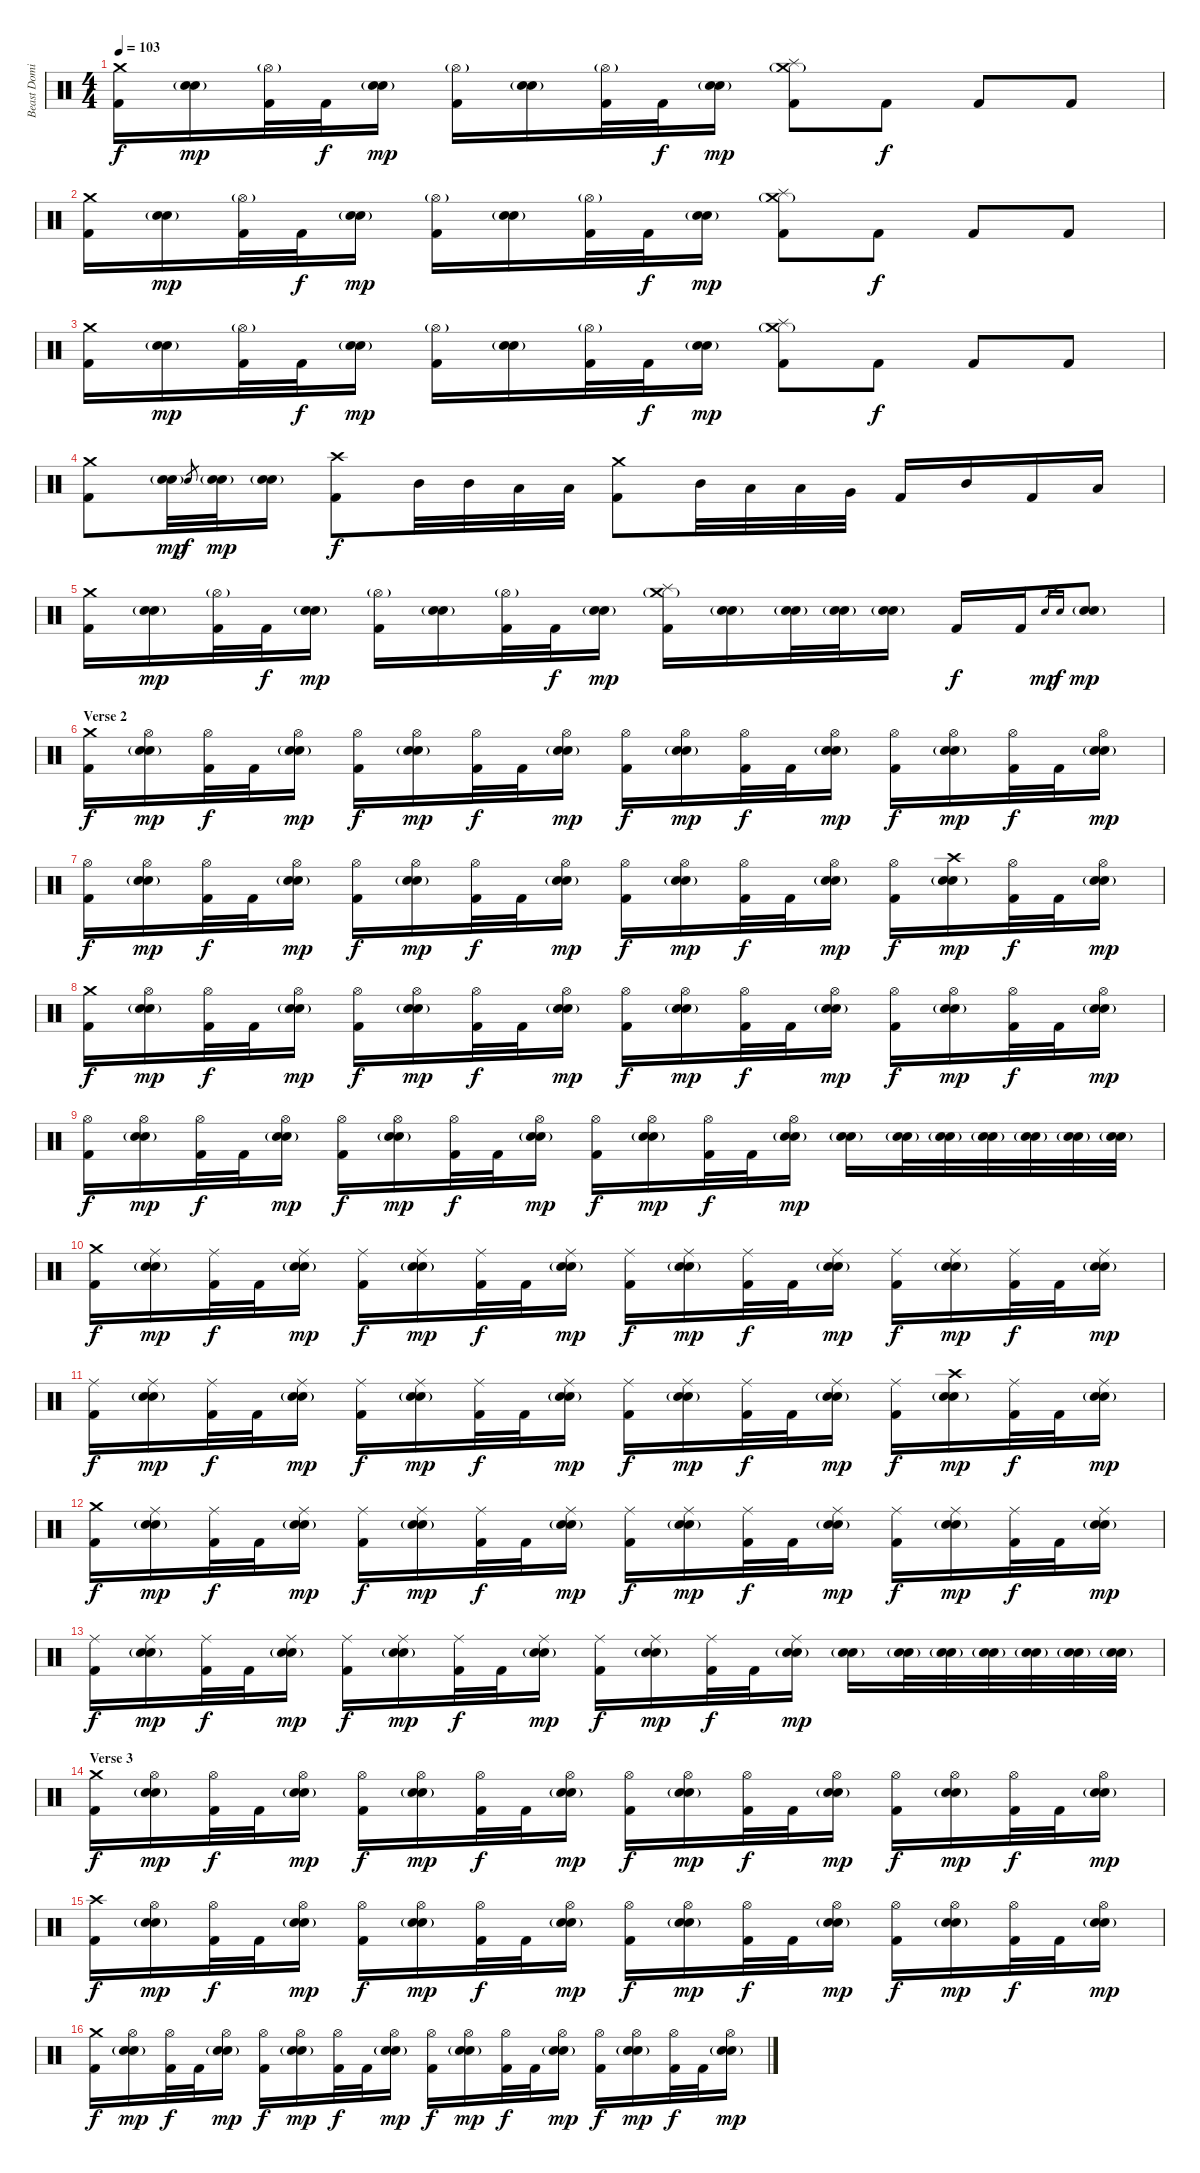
\track ("Beast Dominator" "Beast Domi") {instrument percussion}
\staff {score}
\articulation defaults
\ts (4 4)
\tempo 103
\clef neutral
\ks c
("Crash medium (hit)" "Kick (hit) 2").16{dy f} ("Electric Snare (hit)"{g} "Snare (hit) 2").16{dy mp} ("Hi-Hat (open)"{g} "Kick (hit) 2").32 "Kick (hit) 2".32{dy f} ("Electric Snare (hit)"{g} "Snare (hit) 2").16{dy mp} ("Hi-Hat (open)"{g} "Kick (hit) 2").16 ("Electric Snare (hit)"{g} "Snare (hit) 2").16 ("Hi-Hat (open)"{g} "Kick (hit) 2").32 "Kick (hit) 2".32{dy f} ("Electric Snare (hit)"{g} "Snare (hit) 2").16{dy mp} ("Crash medium (hit)"{g} "Splash (hit)" "Kick (hit) 2").8 "Kick (hit) 2".8{dy f} "Kick (hit) 2".8 "Kick (hit) 2".8 |
("Crash medium (hit)" "Kick (hit) 2").16 ("Electric Snare (hit)"{g} "Snare (hit) 2").16{dy mp} ("Hi-Hat (open)"{g} "Kick (hit) 2").32 "Kick (hit) 2".32{dy f} ("Electric Snare (hit)"{g} "Snare (hit) 2").16{dy mp} ("Hi-Hat (open)"{g} "Kick (hit) 2").16 ("Electric Snare (hit)"{g} "Snare (hit) 2").16 ("Hi-Hat (open)"{g} "Kick (hit) 2").32 "Kick (hit) 2".32{dy f} ("Electric Snare (hit)"{g} "Snare (hit) 2").16{dy mp} ("Crash medium (hit)"{g} "Splash (hit)" "Kick (hit) 2").8 "Kick (hit) 2".8{dy f} "Kick (hit) 2".8 "Kick (hit) 2".8 |
("Crash medium (hit)" "Kick (hit) 2").16 ("Electric Snare (hit)"{g} "Snare (hit) 2").16{dy mp} ("Hi-Hat (open)"{g} "Kick (hit) 2").32 "Kick (hit) 2".32{dy f} ("Electric Snare (hit)"{g} "Snare (hit) 2").16{dy mp} ("Hi-Hat (open)"{g} "Kick (hit) 2").16 ("Electric Snare (hit)"{g} "Snare (hit) 2").16 ("Hi-Hat (open)"{g} "Kick (hit) 2").32 "Kick (hit) 2".32{dy f} ("Electric Snare (hit)"{g} "Snare (hit) 2").16{dy mp} ("Crash medium (hit)"{g} "Splash (hit)" "Kick (hit) 2").8 "Kick (hit) 2".8{dy f} "Kick (hit) 2".8 "Kick (hit) 2".8 |
\section ("" "")
("Crash medium (hit)" "Kick (hit) 2").8 ("Snare (hit) 2"{x} "Electric Snare (hit)"{g}).32{dy mp} "Snare (hit) 2".8{gr dy f} ("Snare (hit) 2" "Electric Snare (hit)"{g}).32{dy mp} ("Snare (hit) 2" "Electric Snare (hit)"{g}).16 ("Crash high (hit)" "Kick (hit) 2").8{dy f} "Mid Tom (hit)".32 "Mid Tom (hit)".32 "Low Tom (hit)".32 "Low Tom (hit)".32 ("Crash medium (hit)" "Kick (hit) 2").8 "Mid Tom (hit)".32 "Low Tom (hit)".32 "Low Tom (hit)".32 "Very Low Tom (hit)".32 "Kick (hit) 2".16 "Mid Tom (hit)".16 "Kick (hit) 2".16 "Low Tom (hit)".16 |
("Crash medium (hit)" "Kick (hit) 2").16 ("Electric Snare (hit)"{g} "Snare (hit) 2").16{dy mp} ("Hi-Hat (open)"{g} "Kick (hit) 2").32 "Kick (hit) 2".32{dy f} ("Electric Snare (hit)"{g} "Snare (hit) 2").16{dy mp} ("Hi-Hat (open)"{g} "Kick (hit) 2").16 ("Electric Snare (hit)"{g} "Snare (hit) 2").16 ("Hi-Hat (open)"{g} "Kick (hit) 2").32 "Kick (hit) 2".32{dy f} ("Electric Snare (hit)"{g} "Snare (hit) 2").16{dy mp} ("Crash medium (hit)"{g} "Splash (hit)" "Kick (hit) 2").16 ("Electric Snare (hit)"{g} "Snare (hit) 2").16 ("Electric Snare (hit)"{g} "Snare (hit) 2").32 ("Electric Snare (hit)"{g} "Snare (hit) 2").32 ("Electric Snare (hit)"{g} "Snare (hit) 2").16 "Kick (hit) 2".16{dy f} "Kick (hit) 2".16 "Electric Snare (hit)".16{gr dy mp} "Snare (hit) 2".16{gr dy f} ("Electric Snare (hit)"{g} "Snare (hit) 2").8{dy mp} |
\section ("" "Verse 2")
("Crash medium (hit)" "Kick (hit) 2").16{dy f} ("Hi-Hat (open)" "Electric Snare (hit)"{g} "Snare (hit) 2").16{dy mp} ("Hi-Hat (open)" "Kick (hit) 2").32{dy f} "Kick (hit) 2".32 ("Hi-Hat (open)" "Electric Snare (hit)"{g} "Snare (hit) 2").16{dy mp} ("Hi-Hat (open)" "Kick (hit) 2").16{dy f} ("Hi-Hat (open)" "Electric Snare (hit)"{g} "Snare (hit) 2").16{dy mp} ("Hi-Hat (open)" "Kick (hit) 2").32{dy f} "Kick (hit) 2".32 ("Hi-Hat (open)" "Electric Snare (hit)"{g} "Snare (hit) 2").16{dy mp} ("Hi-Hat (open)" "Kick (hit) 2").16{dy f} ("Hi-Hat (open)" "Electric Snare (hit)"{g} "Snare (hit) 2").16{dy mp} ("Hi-Hat (open)" "Kick (hit) 2").32{dy f} "Kick (hit) 2".32 ("Hi-Hat (open)" "Electric Snare (hit)"{g} "Snare (hit) 2").16{dy mp} ("Hi-Hat (open)" "Kick (hit) 2").16{dy f} ("Hi-Hat (open)" "Electric Snare (hit)"{g} "Snare (hit) 2").16{dy mp} ("Hi-Hat (open)" "Kick (hit) 2").32{dy f} "Kick (hit) 2".32 ("Hi-Hat (open)" "Electric Snare (hit)"{g} "Snare (hit) 2").16{dy mp} |
("Hi-Hat (open)" "Kick (hit) 2").16{dy f} ("Hi-Hat (open)" "Electric Snare (hit)"{g} "Snare (hit) 2").16{dy mp} ("Hi-Hat (open)" "Kick (hit) 2").32{dy f} "Kick (hit) 2".32 ("Hi-Hat (open)" "Electric Snare (hit)"{g} "Snare (hit) 2").16{dy mp} ("Hi-Hat (open)" "Kick (hit) 2").16{dy f} ("Hi-Hat (open)" "Electric Snare (hit)"{g} "Snare (hit) 2").16{dy mp} ("Hi-Hat (open)" "Kick (hit) 2").32{dy f} "Kick (hit) 2".32 ("Hi-Hat (open)" "Electric Snare (hit)"{g} "Snare (hit) 2").16{dy mp} ("Hi-Hat (open)" "Kick (hit) 2").16{dy f} ("Hi-Hat (open)" "Electric Snare (hit)"{g} "Snare (hit) 2").16{dy mp} ("Hi-Hat (open)" "Kick (hit) 2").32{dy f} "Kick (hit) 2".32 ("Hi-Hat (open)" "Electric Snare (hit)"{g} "Snare (hit) 2").16{dy mp} ("Hi-Hat (open)" "Kick (hit) 2").16{dy f} ("Crash high (hit)" "Electric Snare (hit)"{g} "Snare (hit) 2").16{dy mp} ("Hi-Hat (open)" "Kick (hit) 2").32{dy f} "Kick (hit) 2".32 ("Hi-Hat (open)" "Electric Snare (hit)"{g} "Snare (hit) 2").16{dy mp} |
("Crash medium (hit)" "Kick (hit) 2").16{dy f} ("Hi-Hat (open)" "Electric Snare (hit)"{g} "Snare (hit) 2").16{dy mp} ("Hi-Hat (open)" "Kick (hit) 2").32{dy f} "Kick (hit) 2".32 ("Hi-Hat (open)" "Electric Snare (hit)"{g} "Snare (hit) 2").16{dy mp} ("Hi-Hat (open)" "Kick (hit) 2").16{dy f} ("Hi-Hat (open)" "Electric Snare (hit)"{g} "Snare (hit) 2").16{dy mp} ("Hi-Hat (open)" "Kick (hit) 2").32{dy f} "Kick (hit) 2".32 ("Hi-Hat (open)" "Electric Snare (hit)"{g} "Snare (hit) 2").16{dy mp} ("Hi-Hat (open)" "Kick (hit) 2").16{dy f} ("Hi-Hat (open)" "Electric Snare (hit)"{g} "Snare (hit) 2").16{dy mp} ("Hi-Hat (open)" "Kick (hit) 2").32{dy f} "Kick (hit) 2".32 ("Hi-Hat (open)" "Electric Snare (hit)"{g} "Snare (hit) 2").16{dy mp} ("Hi-Hat (open)" "Kick (hit) 2").16{dy f} ("Hi-Hat (open)" "Electric Snare (hit)"{g} "Snare (hit) 2").16{dy mp} ("Hi-Hat (open)" "Kick (hit) 2").32{dy f} "Kick (hit) 2".32 ("Hi-Hat (open)" "Electric Snare (hit)"{g} "Snare (hit) 2").16{dy mp} |
("Hi-Hat (open)" "Kick (hit) 2").16{dy f} ("Hi-Hat (open)" "Electric Snare (hit)"{g} "Snare (hit) 2").16{dy mp} ("Hi-Hat (open)" "Kick (hit) 2").32{dy f} "Kick (hit) 2".32 ("Hi-Hat (open)" "Electric Snare (hit)"{g} "Snare (hit) 2").16{dy mp} ("Hi-Hat (open)" "Kick (hit) 2").16{dy f} ("Hi-Hat (open)" "Electric Snare (hit)"{g} "Snare (hit) 2").16{dy mp} ("Hi-Hat (open)" "Kick (hit) 2").32{dy f} "Kick (hit) 2".32 ("Hi-Hat (open)" "Electric Snare (hit)"{g} "Snare (hit) 2").16{dy mp} ("Hi-Hat (open)" "Kick (hit) 2").16{dy f} ("Hi-Hat (open)" "Electric Snare (hit)"{g} "Snare (hit) 2").16{dy mp} ("Hi-Hat (open)" "Kick (hit) 2").32{dy f} "Kick (hit) 2".32 ("Hi-Hat (open)" "Electric Snare (hit)"{g} "Snare (hit) 2").16{dy mp} ("Electric Snare (hit)"{g} "Snare (hit) 2").16 ("Electric Snare (hit)"{g} "Snare (hit) 2").32 ("Electric Snare (hit)"{g} "Snare (hit) 2").32 ("Electric Snare (hit)"{g} "Snare (hit) 2").32 ("Electric Snare (hit)"{g} "Snare (hit) 2").32 ("Electric Snare (hit)"{g} "Snare (hit) 2").32 ("Electric Snare (hit)"{g} "Snare (hit) 2").32 |
\section ("" "")
("Crash medium (hit)" "Kick (hit) 2").16{dy f} ("Ride (middle)" "Electric Snare (hit)"{g} "Snare (hit) 2").16{dy mp} ("Ride (middle)" "Kick (hit) 2").32{dy f} "Kick (hit) 2".32 ("Ride (middle)" "Electric Snare (hit)"{g} "Snare (hit) 2").16{dy mp} ("Ride (middle)" "Kick (hit) 2").16{dy f} ("Ride (middle)" "Electric Snare (hit)"{g} "Snare (hit) 2").16{dy mp} ("Ride (middle)" "Kick (hit) 2").32{dy f} "Kick (hit) 2".32 ("Ride (middle)" "Electric Snare (hit)"{g} "Snare (hit) 2").16{dy mp} ("Ride (middle)" "Kick (hit) 2").16{dy f} ("Ride (middle)" "Electric Snare (hit)"{g} "Snare (hit) 2").16{dy mp} ("Ride (middle)" "Kick (hit) 2").32{dy f} "Kick (hit) 2".32 ("Ride (middle)" "Electric Snare (hit)"{g} "Snare (hit) 2").16{dy mp} ("Ride (middle)" "Kick (hit) 2").16{dy f} ("Ride (middle)" "Electric Snare (hit)"{g} "Snare (hit) 2").16{dy mp} ("Ride (middle)" "Kick (hit) 2").32{dy f} "Kick (hit) 2".32 ("Ride (middle)" "Electric Snare (hit)"{g} "Snare (hit) 2").16{dy mp} |
("Ride (middle)" "Kick (hit) 2").16{dy f} ("Ride (middle)" "Electric Snare (hit)"{g} "Snare (hit) 2").16{dy mp} ("Ride (middle)" "Kick (hit) 2").32{dy f} "Kick (hit) 2".32 ("Ride (middle)" "Electric Snare (hit)"{g} "Snare (hit) 2").16{dy mp} ("Ride (middle)" "Kick (hit) 2").16{dy f} ("Ride (middle)" "Electric Snare (hit)"{g} "Snare (hit) 2").16{dy mp} ("Ride (middle)" "Kick (hit) 2").32{dy f} "Kick (hit) 2".32 ("Ride (middle)" "Electric Snare (hit)"{g} "Snare (hit) 2").16{dy mp} ("Ride (middle)" "Kick (hit) 2").16{dy f} ("Ride (middle)" "Electric Snare (hit)"{g} "Snare (hit) 2").16{dy mp} ("Ride (middle)" "Kick (hit) 2").32{dy f} "Kick (hit) 2".32 ("Ride (middle)" "Electric Snare (hit)"{g} "Snare (hit) 2").16{dy mp} ("Ride (middle)" "Kick (hit) 2").16{dy f} ("Crash high (hit)" "Electric Snare (hit)"{g} "Snare (hit) 2").16{dy mp} ("Ride (middle)" "Kick (hit) 2").32{dy f} "Kick (hit) 2".32 ("Ride (middle)" "Electric Snare (hit)"{g} "Snare (hit) 2").16{dy mp} |
("Crash medium (hit)" "Kick (hit) 2").16{dy f} ("Ride (middle)" "Electric Snare (hit)"{g} "Snare (hit) 2").16{dy mp} ("Ride (middle)" "Kick (hit) 2").32{dy f} "Kick (hit) 2".32 ("Ride (middle)" "Electric Snare (hit)"{g} "Snare (hit) 2").16{dy mp} ("Ride (middle)" "Kick (hit) 2").16{dy f} ("Ride (middle)" "Electric Snare (hit)"{g} "Snare (hit) 2").16{dy mp} ("Ride (middle)" "Kick (hit) 2").32{dy f} "Kick (hit) 2".32 ("Ride (middle)" "Electric Snare (hit)"{g} "Snare (hit) 2").16{dy mp} ("Ride (middle)" "Kick (hit) 2").16{dy f} ("Ride (middle)" "Electric Snare (hit)"{g} "Snare (hit) 2").16{dy mp} ("Ride (middle)" "Kick (hit) 2").32{dy f} "Kick (hit) 2".32 ("Ride (middle)" "Electric Snare (hit)"{g} "Snare (hit) 2").16{dy mp} ("Ride (middle)" "Kick (hit) 2").16{dy f} ("Ride (middle)" "Electric Snare (hit)"{g} "Snare (hit) 2").16{dy mp} ("Ride (middle)" "Kick (hit) 2").32{dy f} "Kick (hit) 2".32 ("Ride (middle)" "Electric Snare (hit)"{g} "Snare (hit) 2").16{dy mp} |
("Ride (middle)" "Kick (hit) 2").16{dy f} ("Ride (middle)" "Electric Snare (hit)"{g} "Snare (hit) 2").16{dy mp} ("Ride (middle)" "Kick (hit) 2").32{dy f} "Kick (hit) 2".32 ("Ride (middle)" "Electric Snare (hit)"{g} "Snare (hit) 2").16{dy mp} ("Ride (middle)" "Kick (hit) 2").16{dy f} ("Ride (middle)" "Electric Snare (hit)"{g} "Snare (hit) 2").16{dy mp} ("Ride (middle)" "Kick (hit) 2").32{dy f} "Kick (hit) 2".32 ("Ride (middle)" "Electric Snare (hit)"{g} "Snare (hit) 2").16{dy mp} ("Ride (middle)" "Kick (hit) 2").16{dy f} ("Ride (middle)" "Electric Snare (hit)"{g} "Snare (hit) 2").16{dy mp} ("Ride (middle)" "Kick (hit) 2").32{dy f} "Kick (hit) 2".32 ("Ride (middle)" "Electric Snare (hit)"{g} "Snare (hit) 2").16{dy mp} ("Electric Snare (hit)"{g} "Snare (hit) 2").16 ("Electric Snare (hit)"{g} "Snare (hit) 2").32 ("Electric Snare (hit)"{g} "Snare (hit) 2").32 ("Electric Snare (hit)"{g} "Snare (hit) 2").32 ("Electric Snare (hit)"{g} "Snare (hit) 2").32 ("Electric Snare (hit)"{g} "Snare (hit) 2").32 ("Electric Snare (hit)"{g} "Snare (hit) 2").32 |
\section ("" "Verse 3")
("Crash medium (hit)" "Kick (hit) 2").16{dy f} ("Hi-Hat (open)" "Electric Snare (hit)"{g} "Snare (hit) 2").16{dy mp} ("Hi-Hat (open)" "Kick (hit) 2").32{dy f} "Kick (hit) 2".32 ("Hi-Hat (open)" "Electric Snare (hit)"{g} "Snare (hit) 2").16{dy mp} ("Hi-Hat (open)" "Kick (hit) 2").16{dy f} ("Hi-Hat (open)" "Electric Snare (hit)"{g} "Snare (hit) 2").16{dy mp} ("Hi-Hat (open)" "Kick (hit) 2").32{dy f} "Kick (hit) 2".32 ("Hi-Hat (open)" "Electric Snare (hit)"{g} "Snare (hit) 2").16{dy mp} ("Hi-Hat (open)" "Kick (hit) 2").16{dy f} ("Hi-Hat (open)" "Electric Snare (hit)"{g} "Snare (hit) 2").16{dy mp} ("Hi-Hat (open)" "Kick (hit) 2").32{dy f} "Kick (hit) 2".32 ("Hi-Hat (open)" "Electric Snare (hit)"{g} "Snare (hit) 2").16{dy mp} ("Hi-Hat (open)" "Kick (hit) 2").16{dy f} ("Hi-Hat (open)" "Electric Snare (hit)"{g} "Snare (hit) 2").16{dy mp} ("Hi-Hat (open)" "Kick (hit) 2").32{dy f} "Kick (hit) 2".32 ("Hi-Hat (open)" "Electric Snare (hit)"{g} "Snare (hit) 2").16{dy mp} |
("Crash high (hit)" "Kick (hit) 2").16{dy f} ("Hi-Hat (open)" "Electric Snare (hit)"{g} "Snare (hit) 2").16{dy mp} ("Hi-Hat (open)" "Kick (hit) 2").32{dy f} "Kick (hit) 2".32 ("Hi-Hat (open)" "Electric Snare (hit)"{g} "Snare (hit) 2").16{dy mp} ("Hi-Hat (open)" "Kick (hit) 2").16{dy f} ("Hi-Hat (open)" "Electric Snare (hit)"{g} "Snare (hit) 2").16{dy mp} ("Hi-Hat (open)" "Kick (hit) 2").32{dy f} "Kick (hit) 2".32 ("Hi-Hat (open)" "Electric Snare (hit)"{g} "Snare (hit) 2").16{dy mp} ("Hi-Hat (open)" "Kick (hit) 2").16{dy f} ("Hi-Hat (open)" "Electric Snare (hit)"{g} "Snare (hit) 2").16{dy mp} ("Hi-Hat (open)" "Kick (hit) 2").32{dy f} "Kick (hit) 2".32 ("Hi-Hat (open)" "Electric Snare (hit)"{g} "Snare (hit) 2").16{dy mp} ("Hi-Hat (open)" "Kick (hit) 2").16{dy f} ("Hi-Hat (open)" "Electric Snare (hit)"{g} "Snare (hit) 2").16{dy mp} ("Hi-Hat (open)" "Kick (hit) 2").32{dy f} "Kick (hit) 2".32 ("Hi-Hat (open)" "Electric Snare (hit)"{g} "Snare (hit) 2").16{dy mp} |
("Crash medium (hit)" "Kick (hit) 2").16{dy f} ("Hi-Hat (open)" "Electric Snare (hit)"{g} "Snare (hit) 2").16{dy mp} ("Hi-Hat (open)" "Kick (hit) 2").32{dy f} "Kick (hit) 2".32 ("Hi-Hat (open)" "Electric Snare (hit)"{g} "Snare (hit) 2").16{dy mp} ("Hi-Hat (open)" "Kick (hit) 2").16{dy f} ("Hi-Hat (open)" "Electric Snare (hit)"{g} "Snare (hit) 2").16{dy mp} ("Hi-Hat (open)" "Kick (hit) 2").32{dy f} "Kick (hit) 2".32 ("Hi-Hat (open)" "Electric Snare (hit)"{g} "Snare (hit) 2").16{dy mp} ("Hi-Hat (open)" "Kick (hit) 2").16{dy f} ("Hi-Hat (open)" "Electric Snare (hit)"{g} "Snare (hit) 2").16{dy mp} ("Hi-Hat (open)" "Kick (hit) 2").32{dy f} "Kick (hit) 2".32 ("Hi-Hat (open)" "Electric Snare (hit)"{g} "Snare (hit) 2").16{dy mp} ("Hi-Hat (open)" "Kick (hit) 2").16{dy f} ("Hi-Hat (open)" "Electric Snare (hit)"{g} "Snare (hit) 2").16{dy mp} ("Hi-Hat (open)" "Kick (hit) 2").32{dy f} "Kick (hit) 2".32 ("Hi-Hat (open)" "Electric Snare (hit)"{g} "Snare (hit) 2").16{dy mp}
